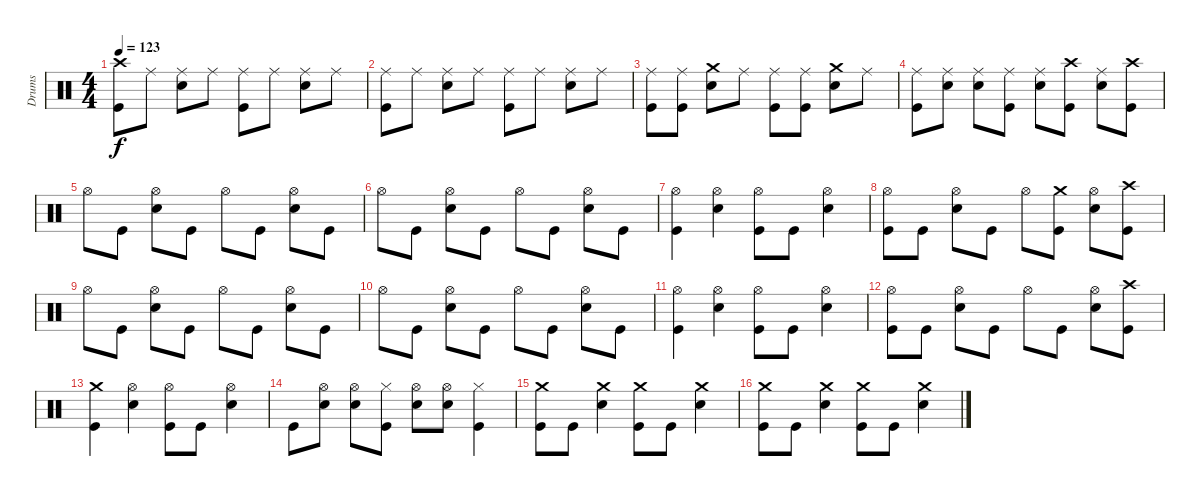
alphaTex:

\track ("Drums" "Drums") {instrument percussion}
\staff {score}
\articulation defaults
\ts (4 4)
\tempo 123
\clef neutral
\ks c
("Crash high (hit)" "Kick (hit)").8{dy f} "Ride (middle)".8 ("Ride (middle)" "Snare (hit) 2").8 "Ride (middle)".8 ("Ride (middle)" "Kick (hit)").8 "Ride (middle)".8 ("Ride (middle)" "Snare (hit) 2").8 "Ride (middle)".8 |
("Ride (middle)" "Kick (hit)").8 "Ride (middle)".8 ("Ride (middle)" "Snare (hit) 2").8 "Ride (middle)".8 ("Ride (middle)" "Kick (hit)").8 "Ride (middle)".8 ("Ride (middle)" "Snare (hit) 2").8 "Ride (middle)".8 |
("Ride (middle)" "Kick (hit)").8 ("Ride (middle)" "Kick (hit)").8 ("Crash medium (hit)" "Snare (hit) 2").8 "Ride (middle)".8 ("Ride (middle)" "Kick (hit)").8 ("Ride (middle)" "Kick (hit)").8 ("Crash medium (hit)" "Snare (hit) 2").8 "Ride (middle)".8 |
("Ride (middle)" "Kick (hit)").8 ("Ride (middle)" "Snare (hit) 2").8 ("Ride (middle)" "Snare (hit) 2").8 ("Ride (middle)" "Kick (hit)").8 ("Ride (middle)" "Snare (hit) 2").8 ("Crash high (hit)" "Kick (hit)").8 ("Ride (middle)" "Snare (hit) 2").8 ("Crash high (hit)" "Kick (hit)").8 |
"Hi-Hat (open)".8 "Kick (hit)".8 ("Hi-Hat (open)" "Snare (hit) 2").8 "Kick (hit)".8 "Hi-Hat (open)".8 "Kick (hit)".8 ("Hi-Hat (open)" "Snare (hit) 2").8 "Kick (hit)".8 |
"Hi-Hat (open)".8 "Kick (hit)".8 ("Hi-Hat (open)" "Snare (hit) 2").8 "Kick (hit)".8 "Hi-Hat (open)".8 "Kick (hit)".8 ("Hi-Hat (open)" "Snare (hit) 2").8 "Kick (hit)".8 |
("Hi-Hat (open)" "Kick (hit)").4 ("Hi-Hat (open)" "Snare (hit) 2").4 ("Hi-Hat (open)" "Kick (hit)").8 "Kick (hit)".8 ("Hi-Hat (open)" "Snare (hit) 2").4 |
("Hi-Hat (open)" "Kick (hit)").8 "Kick (hit)".8 ("Hi-Hat (open)" "Snare (hit) 2").8 "Kick (hit)".8 "Hi-Hat (open)".8 ("Crash medium (hit)" "Kick (hit)").8 ("Hi-Hat (open)" "Snare (hit) 2").8 ("Crash high (hit)" "Kick (hit)").8 |
"Hi-Hat (open)".8 "Kick (hit)".8 ("Hi-Hat (open)" "Snare (hit) 2").8 "Kick (hit)".8 "Hi-Hat (open)".8 "Kick (hit)".8 ("Hi-Hat (open)" "Snare (hit) 2").8 "Kick (hit)".8 |
"Hi-Hat (open)".8 "Kick (hit)".8 ("Hi-Hat (open)" "Snare (hit) 2").8 "Kick (hit)".8 "Hi-Hat (open)".8 "Kick (hit)".8 ("Hi-Hat (open)" "Snare (hit) 2").8 "Kick (hit)".8 |
("Hi-Hat (open)" "Kick (hit)").4 ("Hi-Hat (open)" "Snare (hit) 2").4 ("Hi-Hat (open)" "Kick (hit)").8 "Kick (hit)".8 ("Hi-Hat (open)" "Snare (hit) 2").4 |
("Hi-Hat (open)" "Kick (hit)").8 "Kick (hit)".8 ("Hi-Hat (open)" "Snare (hit) 2").8 "Kick (hit)".8 "Hi-Hat (open)".8 "Kick (hit)".8 ("Hi-Hat (open)" "Snare (hit) 2").8 ("Crash high (hit)" "Kick (hit)").8 |
("Crash medium (hit)" "Kick (hit)").4 ("Hi-Hat (open)" "Snare (hit) 2").4 ("Hi-Hat (open)" "Kick (hit)").8 "Kick (hit)".8 ("Hi-Hat (open)" "Snare (hit) 2").4 |
"Kick (hit)".8 ("Hi-Hat (open)" "Snare (hit) 2").8 ("Hi-Hat (open)" "Snare (hit) 2").8 ("Hi-Hat (closed)" "Kick (hit)").8 ("Hi-Hat (open)" "Snare (hit) 2").8 ("Hi-Hat (open)" "Snare (hit) 2").8 ("Hi-Hat (closed)" "Kick (hit)").4 |
("Crash medium (hit)" "Kick (hit)").8 "Kick (hit)".8 ("Crash medium (hit)" "Snare (hit) 2").4 ("Crash medium (hit)" "Kick (hit)").8 "Kick (hit)".8 ("Crash medium (hit)" "Snare (hit) 2").4 |
("Crash medium (hit)" "Kick (hit)").8 "Kick (hit)".8 ("Crash medium (hit)" "Snare (hit) 2").4 ("Crash medium (hit)" "Kick (hit)").8 "Kick (hit)".8 ("Crash medium (hit)" "Snare (hit) 2").4
